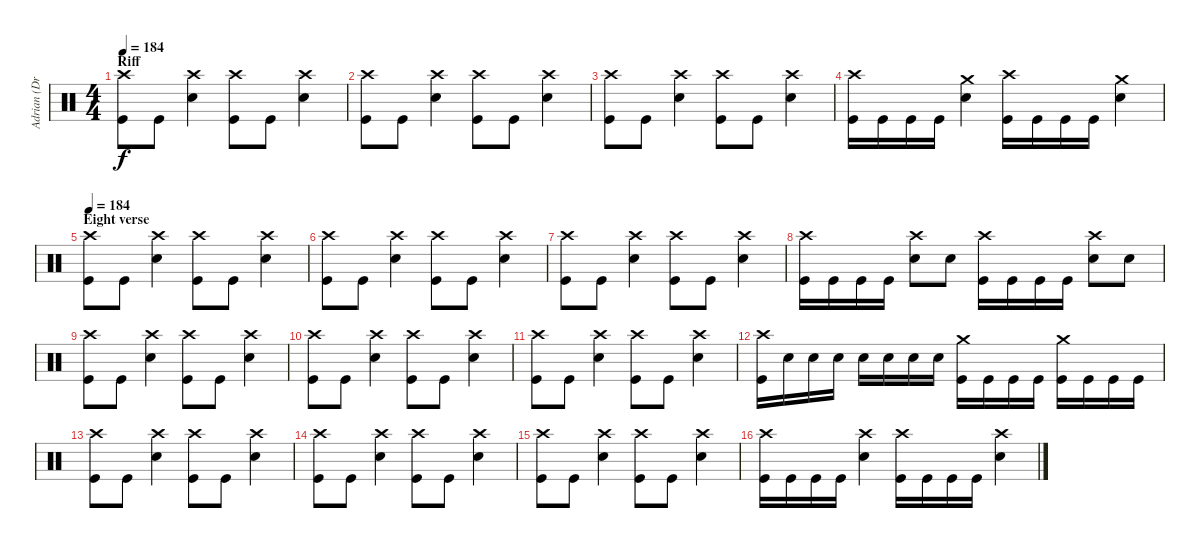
\track ("Adrian (Drums)" "Adrian (Dr") {instrument percussion}
\staff {score}
\articulation defaults
\ts (4 4)
\section ("" "Riff")
\tempo 184
\clef neutral
\ks c
("Crash high (hit)" "Kick (hit)").8{dy f} "Kick (hit)".8 ("Crash high (hit)" "Electric Snare (hit)").4 ("Crash high (hit)" "Kick (hit)").8 "Kick (hit)".8 ("Crash high (hit)" "Electric Snare (hit)").4 |
("Crash high (hit)" "Kick (hit)").8 "Kick (hit)".8 ("Crash high (hit)" "Electric Snare (hit)").4 ("Crash high (hit)" "Kick (hit)").8 "Kick (hit)".8 ("Crash high (hit)" "Electric Snare (hit)").4 |
("Crash high (hit)" "Kick (hit)").8 "Kick (hit)".8 ("Crash high (hit)" "Electric Snare (hit)").4 ("Crash high (hit)" "Kick (hit)").8 "Kick (hit)".8 ("Crash high (hit)" "Electric Snare (hit)").4 |
("Crash high (hit)" "Kick (hit)").16 "Kick (hit)".16 "Kick (hit)".16 "Kick (hit)".16 ("Crash medium (hit)" "Electric Snare (hit)").4 ("Crash high (hit)" "Kick (hit)").16 "Kick (hit)".16 "Kick (hit)".16 "Kick (hit)".16 ("Crash medium (hit)" "Electric Snare (hit)").4 |
\section ("" "Eight verse")
\tempo 184
("Crash high (hit)" "Kick (hit)").8 "Kick (hit)".8 ("Crash high (hit)" "Electric Snare (hit)").4 ("Crash high (hit)" "Kick (hit)").8 "Kick (hit)".8 ("Crash high (hit)" "Electric Snare (hit)").4 |
("Crash high (hit)" "Kick (hit)").8 "Kick (hit)".8 ("Crash high (hit)" "Electric Snare (hit)").4 ("Crash high (hit)" "Kick (hit)").8 "Kick (hit)".8 ("Crash high (hit)" "Electric Snare (hit)").4 |
("Crash high (hit)" "Kick (hit)").8 "Kick (hit)".8 ("Crash high (hit)" "Electric Snare (hit)").4 ("Crash high (hit)" "Kick (hit)").8 "Kick (hit)".8 ("Crash high (hit)" "Electric Snare (hit)").4 |
("Crash high (hit)" "Kick (hit)").16 "Kick (hit)".16 "Kick (hit)".16 "Kick (hit)".16 ("Crash high (hit)" "Electric Snare (hit)").8 "Electric Snare (hit)".8 ("Crash high (hit)" "Kick (hit)").16 "Kick (hit)".16 "Kick (hit)".16 "Kick (hit)".16 ("Crash high (hit)" "Electric Snare (hit)").8 "Electric Snare (hit)".8 |
("Crash high (hit)" "Kick (hit)").8 "Kick (hit)".8 ("Crash high (hit)" "Electric Snare (hit)").4 ("Crash high (hit)" "Kick (hit)").8 "Kick (hit)".8 ("Crash high (hit)" "Electric Snare (hit)").4 |
("Crash high (hit)" "Kick (hit)").8 "Kick (hit)".8 ("Crash high (hit)" "Electric Snare (hit)").4 ("Crash high (hit)" "Kick (hit)").8 "Kick (hit)".8 ("Crash high (hit)" "Electric Snare (hit)").4 |
("Crash high (hit)" "Kick (hit)").8 "Kick (hit)".8 ("Crash high (hit)" "Electric Snare (hit)").4 ("Crash high (hit)" "Kick (hit)").8 "Kick (hit)".8 ("Crash high (hit)" "Electric Snare (hit)").4 |
("Crash high (hit)" "Kick (hit)").16 "Electric Snare (hit)".16 "Electric Snare (hit)".16 "Electric Snare (hit)".16 "Electric Snare (hit)".16 "Electric Snare (hit)".16 "Electric Snare (hit)".16 "Electric Snare (hit)".16 ("Crash medium (hit)" "Kick (hit)").16 "Kick (hit)".16 "Kick (hit)".16 "Kick (hit)".16 ("Crash medium (hit)" "Kick (hit)").16 "Kick (hit)".16 "Kick (hit)".16 "Kick (hit)".16 |
("Crash high (hit)" "Kick (hit)").8 "Kick (hit)".8 ("Crash high (hit)" "Electric Snare (hit)").4 ("Crash high (hit)" "Kick (hit)").8 "Kick (hit)".8 ("Crash high (hit)" "Electric Snare (hit)").4 |
("Crash high (hit)" "Kick (hit)").8 "Kick (hit)".8 ("Crash high (hit)" "Electric Snare (hit)").4 ("Crash high (hit)" "Kick (hit)").8 "Kick (hit)".8 ("Crash high (hit)" "Electric Snare (hit)").4 |
("Crash high (hit)" "Kick (hit)").8 "Kick (hit)".8 ("Crash high (hit)" "Electric Snare (hit)").4 ("Crash high (hit)" "Kick (hit)").8 "Kick (hit)".8 ("Crash high (hit)" "Electric Snare (hit)").4 |
("Crash high (hit)" "Kick (hit)").16 "Kick (hit)".16 "Kick (hit)".16 "Kick (hit)".16 ("Crash high (hit)" "Electric Snare (hit)").4 ("Crash high (hit)" "Kick (hit)").16 "Kick (hit)".16 "Kick (hit)".16 "Kick (hit)".16 ("Crash high (hit)" "Electric Snare (hit)").4
